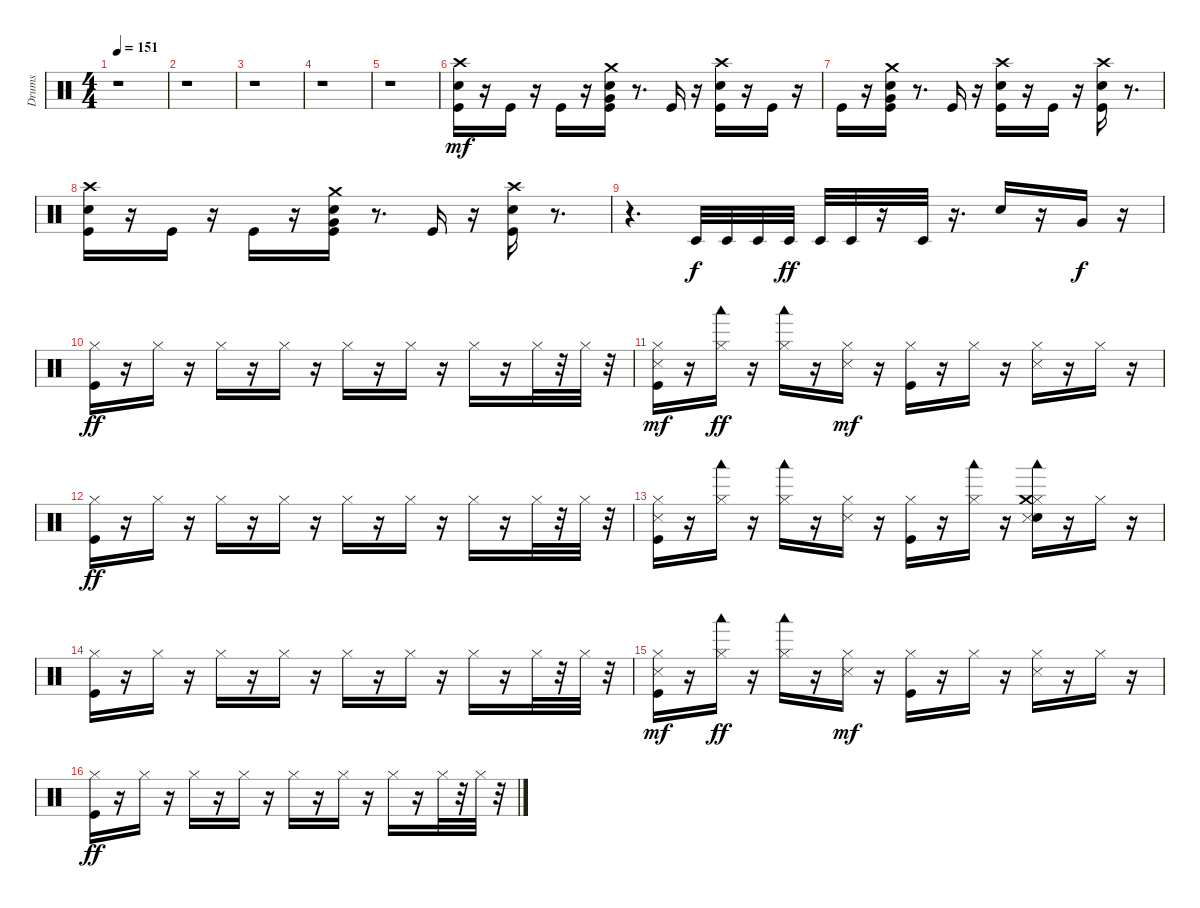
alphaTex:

\track ("Drums" "Drums") {instrument percussion}
\staff {score}
\articulation defaults
\ts (4 4)
\tempo 151
\clef neutral
\ks c
r.1{dy mf} |
r.1 |
r.1 |
r.1 |
r.1 |
("Kick (hit)" "Snare (hit) 2" "Crash high (hit)").16 r.16 "Kick (hit)".16 r.16 "Kick (hit)".16 r.16 ("Kick (hit)" "Snare (hit) 2" "Very Low Tom (hit)" "Crash medium (hit)").16 r.8{d} "Kick (hit)".16 r.16 ("Kick (hit)" "Snare (hit) 2" "Crash high (hit)").16 r.16 "Kick (hit)".16 r.16 |
"Kick (hit)".16 r.16 ("Kick (hit)" "Snare (hit) 2" "Very Low Tom (hit)" "Crash medium (hit)").16 r.8{d} "Kick (hit)".16 r.16 ("Kick (hit)" "Snare (hit) 2" "Crash high (hit)").16 r.16 "Kick (hit)".16 r.16 ("Kick (hit)" "Snare (hit) 2" "Crash high (hit)").16 r.8{d} |
("Kick (hit)" "Snare (hit) 2" "Crash high (hit)").16 r.16 "Kick (hit)".16 r.16 "Kick (hit)".16 r.16 ("Kick (hit)" "Snare (hit) 2" "Very Low Tom (hit)" "Crash medium (hit)").16 r.8{d} "Kick (hit)".16 r.16 ("Kick (hit)" "Snare (hit) 2" "Crash high (hit)").16 r.8{d} |
r.4{d} "Timbale low (hit)".32{dy f} "Timbale low (hit)".32 "Timbale low (hit)".32 "Timbale low (hit)".32{dy ff} "Timbale low (hit)".32 "Timbale low (hit)".32 r.16 "Timbale low (hit)".32 r.16{d} "Snare (hit) 2".16 r.16 "Very Low Tom (hit)".16{dy f} r.16 |
("Kick (hit)" "Hi-Hat (closed)").16{dy ff} r.16 "Hi-Hat (closed)".16 r.16 "Hi-Hat (closed)".16 r.16 "Hi-Hat (closed)".16 r.16 "Hi-Hat (closed)".16 r.16 "Hi-Hat (closed)".16 r.16 "Hi-Hat (closed)".16 r.16 "Hi-Hat (closed)".32 r.32 "Hi-Hat (closed)".32 r.32 |
("Kick (hit)" "Snare (side stick) 3" "Hi-Hat (closed)").16{dy mf} r.16 ("Hi-Hat (closed)" "Woodblock low (hit)").16{dy ff} r.16 ("Hi-Hat (closed)" "Woodblock low (hit)").16 r.16 ("Snare (side stick) 3" "Hi-Hat (closed)").16{dy mf} r.16 ("Kick (hit)" "Hi-Hat (closed)").16 r.16 "Hi-Hat (closed)".16 r.16 ("Snare (side stick) 3" "Hi-Hat (closed)").16 r.16 "Hi-Hat (closed)".16 r.16 |
("Kick (hit)" "Hi-Hat (closed)").16{dy ff} r.16 "Hi-Hat (closed)".16 r.16 "Hi-Hat (closed)".16 r.16 "Hi-Hat (closed)".16 r.16 "Hi-Hat (closed)".16 r.16 "Hi-Hat (closed)".16 r.16 "Hi-Hat (closed)".16 r.16 "Hi-Hat (closed)".32 r.32 "Hi-Hat (closed)".32 r.32 |
("Kick (hit)" "Snare (side stick) 3" "Hi-Hat (closed)").16 r.16 ("Hi-Hat (closed)" "Woodblock low (hit)").16 r.16 ("Hi-Hat (closed)" "Woodblock low (hit)").16 r.16 ("Snare (side stick) 3" "Hi-Hat (closed)").16 r.16 ("Kick (hit)" "Hi-Hat (closed)").16 r.16 ("Hi-Hat (closed)" "Woodblock low (hit)").16 r.16 ("Snare (hit) 2" "Snare (side stick) 3" "Hi-Hat (closed)" "Crash medium (hit)" "Woodblock low (hit)").16 r.16 "Hi-Hat (closed)".16 r.16 |
("Kick (hit)" "Hi-Hat (closed)").16 r.16 "Hi-Hat (closed)".16 r.16 "Hi-Hat (closed)".16 r.16 "Hi-Hat (closed)".16 r.16 "Hi-Hat (closed)".16 r.16 "Hi-Hat (closed)".16 r.16 "Hi-Hat (closed)".16 r.16 "Hi-Hat (closed)".32 r.32 "Hi-Hat (closed)".32 r.32 |
("Kick (hit)" "Snare (side stick) 3" "Hi-Hat (closed)").16{dy mf} r.16 ("Hi-Hat (closed)" "Woodblock low (hit)").16{dy ff} r.16 ("Hi-Hat (closed)" "Woodblock low (hit)").16 r.16 ("Snare (side stick) 3" "Hi-Hat (closed)").16{dy mf} r.16 ("Kick (hit)" "Hi-Hat (closed)").16 r.16 "Hi-Hat (closed)".16 r.16 ("Snare (side stick) 3" "Hi-Hat (closed)").16 r.16 "Hi-Hat (closed)".16 r.16 |
("Kick (hit)" "Hi-Hat (closed)").16{dy ff} r.16 "Hi-Hat (closed)".16 r.16 "Hi-Hat (closed)".16 r.16 "Hi-Hat (closed)".16 r.16 "Hi-Hat (closed)".16 r.16 "Hi-Hat (closed)".16 r.16 "Hi-Hat (closed)".16 r.16 "Hi-Hat (closed)".32 r.32 "Hi-Hat (closed)".32 r.32
